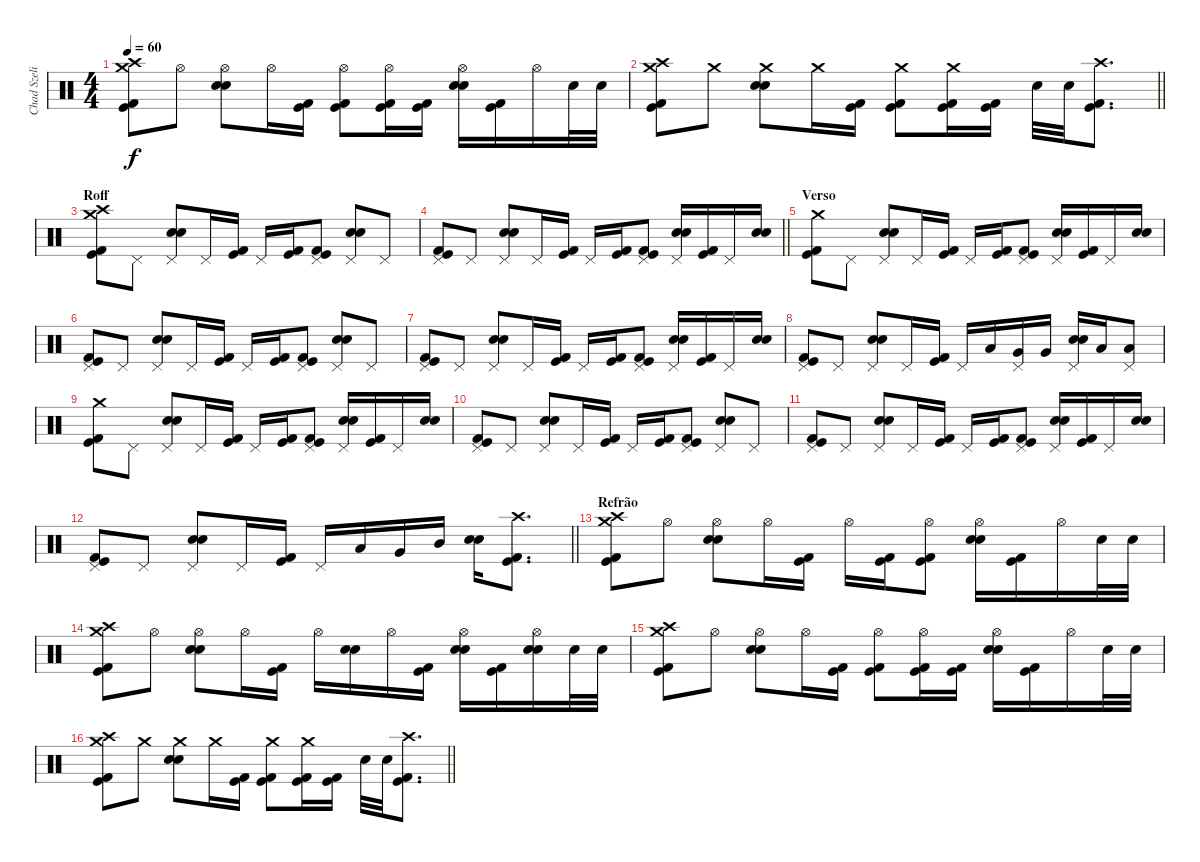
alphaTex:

\track ("Chad Szeliga" "Chad Szeli") {instrument percussion}
\staff {score}
\articulation defaults
\ts (4 4)
\tempo 60
\clef neutral
\ks c
("Crash high (hit)" "Kick (hit) 2" "Kick (hit)" "Crash medium (hit)").8{dy f} "Hi-Hat (open)".8 ("Snare (hit) 2" "Snare (hit) 2" "Hi-Hat (open)").8 "Hi-Hat (open)".16 ("Kick (hit) 2" "Kick (hit)").16 ("Kick (hit) 2" "Kick (hit)" "Hi-Hat (open)").8 ("Kick (hit) 2" "Kick (hit)" "Hi-Hat (open)").16 ("Kick (hit) 2" "Kick (hit)").16 ("Snare (hit) 2" "Snare (hit) 2" "Hi-Hat (open)").16 ("Kick (hit) 2" "Kick (hit)").16 "Hi-Hat (open)".16 "Snare (hit) 2".32 "Snare (hit) 2".32 |
\barLineRight lightlight
("Crash high (hit)" "Kick (hit) 2" "Kick (hit)" "Crash medium (hit)").8 "Crash medium (hit)".8 ("Crash medium (hit)" "Snare (hit) 2" "Snare (hit) 2").8 "Crash medium (hit)".16 ("Kick (hit) 2" "Kick (hit)").16 ("Crash medium (hit)" "Kick (hit) 2" "Kick (hit)").8 ("Crash medium (hit)" "Kick (hit) 2" "Kick (hit)").16 ("Kick (hit) 2" "Kick (hit)").16 "Snare (hit) 2".32 "Snare (hit) 2".32 ("Crash high (hit)" "Kick (hit) 2" "Kick (hit)").8{d} |
\section ("" "Roff")
("Crash high (hit)" "Kick (hit) 2" "Kick (hit)" "Crash medium (hit)").8 "Pedal Hi-Hat (hit)".8 ("Snare (hit) 2" "Snare (hit) 2" "Pedal Hi-Hat (hit)").8 "Pedal Hi-Hat (hit)".16 ("Kick (hit) 2" "Kick (hit)").16 "Pedal Hi-Hat (hit)".16 ("Kick (hit) 2" "Kick (hit)").16 ("Kick (hit) 2" "Kick (hit)" "Pedal Hi-Hat (hit)").8 ("Snare (hit) 2" "Snare (hit) 2" "Pedal Hi-Hat (hit)").8 "Pedal Hi-Hat (hit)".8 |
\barLineRight lightlight
("Kick (hit) 2" "Kick (hit)" "Pedal Hi-Hat (hit)").8 "Pedal Hi-Hat (hit)".8 ("Snare (hit) 2" "Snare (hit) 2" "Pedal Hi-Hat (hit)").8 "Pedal Hi-Hat (hit)".16 ("Kick (hit) 2" "Kick (hit)").16 "Pedal Hi-Hat (hit)".16 ("Kick (hit) 2" "Kick (hit)").16 ("Kick (hit) 2" "Kick (hit)" "Pedal Hi-Hat (hit)").8 ("Snare (hit) 2" "Snare (hit) 2" "Pedal Hi-Hat (hit)").16 ("Kick (hit) 2" "Kick (hit)").16 "Pedal Hi-Hat (hit)".16 ("Snare (hit) 2" "Snare (hit) 2").16 |
\section ("" "Verso")
("Crash medium (hit)" "Kick (hit) 2" "Kick (hit)").8 "Pedal Hi-Hat (hit)".8 ("Snare (hit) 2" "Snare (hit) 2" "Pedal Hi-Hat (hit)").8 "Pedal Hi-Hat (hit)".16 ("Kick (hit) 2" "Kick (hit)").16 "Pedal Hi-Hat (hit)".16 ("Kick (hit) 2" "Kick (hit)").16 ("Kick (hit) 2" "Kick (hit)" "Pedal Hi-Hat (hit)").8 ("Snare (hit) 2" "Snare (hit) 2" "Pedal Hi-Hat (hit)").16 ("Kick (hit) 2" "Kick (hit)").16 "Pedal Hi-Hat (hit)".16 ("Snare (hit) 2" "Snare (hit) 2").16 |
("Kick (hit) 2" "Kick (hit)" "Pedal Hi-Hat (hit)").8 "Pedal Hi-Hat (hit)".8 ("Snare (hit) 2" "Snare (hit) 2" "Pedal Hi-Hat (hit)").8 "Pedal Hi-Hat (hit)".16 ("Kick (hit) 2" "Kick (hit)").16 "Pedal Hi-Hat (hit)".16 ("Kick (hit) 2" "Kick (hit)").16 ("Kick (hit) 2" "Kick (hit)" "Pedal Hi-Hat (hit)").8 ("Snare (hit) 2" "Snare (hit) 2" "Pedal Hi-Hat (hit)").8 "Pedal Hi-Hat (hit)".8 |
("Kick (hit) 2" "Kick (hit)" "Pedal Hi-Hat (hit)").8 "Pedal Hi-Hat (hit)".8 ("Snare (hit) 2" "Snare (hit) 2" "Pedal Hi-Hat (hit)").8 "Pedal Hi-Hat (hit)".16 ("Kick (hit) 2" "Kick (hit)").16 "Pedal Hi-Hat (hit)".16 ("Kick (hit) 2" "Kick (hit)").16 ("Kick (hit) 2" "Kick (hit)" "Pedal Hi-Hat (hit)").8 ("Snare (hit) 2" "Snare (hit) 2" "Pedal Hi-Hat (hit)").16 ("Kick (hit) 2" "Kick (hit)").16 "Pedal Hi-Hat (hit)".16 ("Snare (hit) 2" "Snare (hit) 2").16 |
("Kick (hit) 2" "Kick (hit)" "Pedal Hi-Hat (hit)").8 "Pedal Hi-Hat (hit)".8 ("Snare (hit) 2" "Snare (hit) 2" "Pedal Hi-Hat (hit)").8 "Pedal Hi-Hat (hit)".16 ("Kick (hit) 2" "Kick (hit)").16 "Pedal Hi-Hat (hit)".16 "Low Tom (hit)".16 ("Very Low Tom (hit)" "Pedal Hi-Hat (hit)").16 "Very Low Tom (hit)".16 ("Snare (hit) 2" "Snare (hit) 2" "Pedal Hi-Hat (hit)").16 "Low Tom (hit)".16 ("Low Tom (hit)" "Pedal Hi-Hat (hit)").8 |
("Crash medium (hit)" "Kick (hit) 2" "Kick (hit)").8 "Pedal Hi-Hat (hit)".8 ("Snare (hit) 2" "Snare (hit) 2" "Pedal Hi-Hat (hit)").8 "Pedal Hi-Hat (hit)".16 ("Kick (hit) 2" "Kick (hit)").16 "Pedal Hi-Hat (hit)".16 ("Kick (hit) 2" "Kick (hit)").16 ("Kick (hit) 2" "Kick (hit)" "Pedal Hi-Hat (hit)").8 ("Snare (hit) 2" "Snare (hit) 2" "Pedal Hi-Hat (hit)").16 ("Kick (hit) 2" "Kick (hit)").16 "Pedal Hi-Hat (hit)".16 ("Snare (hit) 2" "Snare (hit) 2").16 |
("Kick (hit) 2" "Kick (hit)" "Pedal Hi-Hat (hit)").8 "Pedal Hi-Hat (hit)".8 ("Snare (hit) 2" "Snare (hit) 2" "Pedal Hi-Hat (hit)").8 "Pedal Hi-Hat (hit)".16 ("Kick (hit) 2" "Kick (hit)").16 "Pedal Hi-Hat (hit)".16 ("Kick (hit) 2" "Kick (hit)").16 ("Kick (hit) 2" "Kick (hit)" "Pedal Hi-Hat (hit)").8 ("Snare (hit) 2" "Snare (hit) 2" "Pedal Hi-Hat (hit)").8 "Pedal Hi-Hat (hit)".8 |
("Kick (hit) 2" "Kick (hit)" "Pedal Hi-Hat (hit)").8 "Pedal Hi-Hat (hit)".8 ("Snare (hit) 2" "Snare (hit) 2" "Pedal Hi-Hat (hit)").8 "Pedal Hi-Hat (hit)".16 ("Kick (hit) 2" "Kick (hit)").16 "Pedal Hi-Hat (hit)".16 ("Kick (hit) 2" "Kick (hit)").16 ("Kick (hit) 2" "Kick (hit)" "Pedal Hi-Hat (hit)").8 ("Snare (hit) 2" "Snare (hit) 2" "Pedal Hi-Hat (hit)").16 ("Kick (hit) 2" "Kick (hit)").16 "Pedal Hi-Hat (hit)".16 ("Snare (hit) 2" "Snare (hit) 2").16 |
\barLineRight lightlight
("Kick (hit) 2" "Kick (hit)" "Pedal Hi-Hat (hit)").8 "Pedal Hi-Hat (hit)".8 ("Snare (hit) 2" "Snare (hit) 2" "Pedal Hi-Hat (hit)").8 "Pedal Hi-Hat (hit)".16 ("Kick (hit) 2" "Kick (hit)").16 "Pedal Hi-Hat (hit)".16 "Low Tom (hit)".16 "Very Low Tom (hit)".16 "Mid Tom (hit)".16 ("Snare (hit) 2" "Snare (hit) 2").16 ("Crash high (hit)" "Kick (hit) 2" "Kick (hit)").8{d} |
\section ("" "Refrão")
("Crash high (hit)" "Kick (hit) 2" "Kick (hit)" "Crash medium (hit)").8 "Hi-Hat (open)".8 ("Snare (hit) 2" "Snare (hit) 2" "Hi-Hat (open)").8 "Hi-Hat (open)".16 ("Kick (hit) 2" "Kick (hit)").16 "Hi-Hat (open)".16 ("Kick (hit) 2" "Kick (hit)").16 ("Kick (hit) 2" "Kick (hit)" "Hi-Hat (open)").8 ("Snare (hit) 2" "Snare (hit) 2" "Hi-Hat (open)").16 ("Kick (hit) 2" "Kick (hit)").16 "Hi-Hat (open)".16 "Snare (hit) 2".32 "Snare (hit) 2".32 |
("Crash high (hit)" "Kick (hit) 2" "Kick (hit)" "Crash medium (hit)").8 "Hi-Hat (open)".8 ("Snare (hit) 2" "Snare (hit) 2" "Hi-Hat (open)").8 "Hi-Hat (open)".16 ("Kick (hit) 2" "Kick (hit)").16 "Hi-Hat (open)".16 ("Snare (hit) 2" "Snare (hit) 2").16 "Hi-Hat (open)".16 ("Kick (hit) 2" "Kick (hit)").16 ("Snare (hit) 2" "Snare (hit) 2" "Hi-Hat (open)").16 ("Kick (hit) 2" "Kick (hit)").16 ("Snare (hit) 2" "Snare (hit) 2" "Hi-Hat (open)").16 "Snare (hit) 2".32 "Snare (hit) 2".32 |
("Crash high (hit)" "Kick (hit) 2" "Kick (hit)" "Crash medium (hit)").8 "Hi-Hat (open)".8 ("Snare (hit) 2" "Snare (hit) 2" "Hi-Hat (open)").8 "Hi-Hat (open)".16 ("Kick (hit) 2" "Kick (hit)").16 ("Kick (hit) 2" "Kick (hit)" "Hi-Hat (open)").8 ("Kick (hit) 2" "Kick (hit)" "Hi-Hat (open)").16 ("Kick (hit) 2" "Kick (hit)").16 ("Snare (hit) 2" "Snare (hit) 2" "Hi-Hat (open)").16 ("Kick (hit) 2" "Kick (hit)").16 "Hi-Hat (open)".16 "Snare (hit) 2".32 "Snare (hit) 2".32 |
\barLineRight lightlight
("Crash high (hit)" "Kick (hit) 2" "Kick (hit)" "Crash medium (hit)").8 "Crash medium (hit)".8 ("Crash medium (hit)" "Snare (hit) 2" "Snare (hit) 2").8 "Crash medium (hit)".16 ("Kick (hit) 2" "Kick (hit)").16 ("Crash medium (hit)" "Kick (hit) 2" "Kick (hit)").8 ("Crash medium (hit)" "Kick (hit) 2" "Kick (hit)").16 ("Kick (hit) 2" "Kick (hit)").16 "Snare (hit) 2".32 "Snare (hit) 2".32 ("Crash high (hit)" "Kick (hit) 2" "Kick (hit)").8{d}
